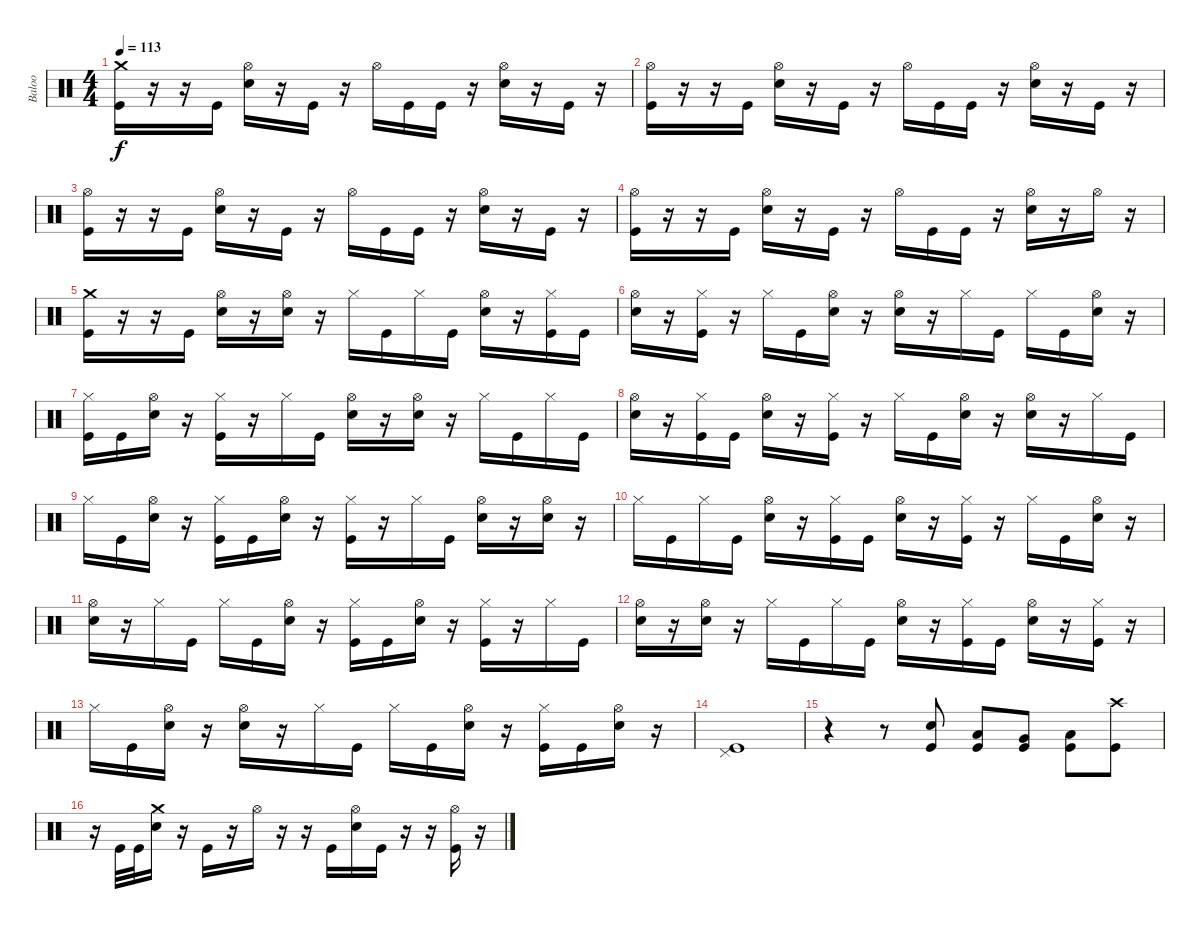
\track ("Baloo" "Baloo") {instrument percussion}
\staff {score}
\articulation defaults
\ts (4 4)
\tempo 113
\clef neutral
\ks c
("Crash medium (hit)" "Kick (hit)").16{dy f} r.16 r.16 "Kick (hit)".16 ("Hi-Hat (open)" "Electric Snare (hit)").16 r.16 "Kick (hit)".16 r.16 "Hi-Hat (open)".16 "Kick (hit)".16 "Kick (hit)".16 r.16 ("Hi-Hat (open)" "Electric Snare (hit)").16 r.16 "Kick (hit)".16 r.16 |
("Hi-Hat (open)" "Kick (hit)").16 r.16 r.16 "Kick (hit)".16 ("Hi-Hat (open)" "Electric Snare (hit)").16 r.16 "Kick (hit)".16 r.16 "Hi-Hat (open)".16 "Kick (hit)".16 "Kick (hit)".16 r.16 ("Hi-Hat (open)" "Electric Snare (hit)").16 r.16 "Kick (hit)".16 r.16 |
("Hi-Hat (open)" "Kick (hit)").16 r.16 r.16 "Kick (hit)".16 ("Hi-Hat (open)" "Electric Snare (hit)").16 r.16 "Kick (hit)".16 r.16 "Hi-Hat (open)".16 "Kick (hit)".16 "Kick (hit)".16 r.16 ("Hi-Hat (open)" "Electric Snare (hit)").16 r.16 "Kick (hit)".16 r.16 |
("Hi-Hat (open)" "Kick (hit)").16 r.16 r.16 "Kick (hit)".16 ("Hi-Hat (open)" "Electric Snare (hit)").16 r.16 "Kick (hit)".16 r.16 "Hi-Hat (open)".16 "Kick (hit)".16 "Kick (hit)".16 r.16 ("Hi-Hat (open)" "Electric Snare (hit)").16 r.16 "Hi-Hat (open)".16 r.16 |
("Crash medium (hit)" "Kick (hit)").16 r.16 r.16 "Kick (hit)".16 ("Hi-Hat (open)" "Electric Snare (hit)").16 r.16 ("Hi-Hat (open)" "Electric Snare (hit)").16 r.16 "Hi-Hat (closed)".16 "Kick (hit)".16 "Hi-Hat (closed)".16 "Kick (hit)".16 ("Hi-Hat (open)" "Electric Snare (hit)").16 r.16 ("Hi-Hat (closed)" "Kick (hit)").16 "Kick (hit)".16 |
("Hi-Hat (open)" "Electric Snare (hit)").16 r.16 ("Hi-Hat (closed)" "Kick (hit)").16 r.16 "Hi-Hat (closed)".16 "Kick (hit)".16 ("Hi-Hat (open)" "Electric Snare (hit)").16 r.16 ("Hi-Hat (open)" "Electric Snare (hit)").16 r.16 "Hi-Hat (closed)".16 "Kick (hit)".16 "Hi-Hat (closed)".16 "Kick (hit)".16 ("Hi-Hat (open)" "Electric Snare (hit)").16 r.16 |
("Hi-Hat (closed)" "Kick (hit)").16 "Kick (hit)".16 ("Hi-Hat (open)" "Electric Snare (hit)").16 r.16 ("Hi-Hat (closed)" "Kick (hit)").16 r.16 "Hi-Hat (closed)".16 "Kick (hit)".16 ("Hi-Hat (open)" "Electric Snare (hit)").16 r.16 ("Hi-Hat (open)" "Electric Snare (hit)").16 r.16 "Hi-Hat (closed)".16 "Kick (hit)".16 "Hi-Hat (closed)".16 "Kick (hit)".16 |
("Hi-Hat (open)" "Electric Snare (hit)").16 r.16 ("Hi-Hat (closed)" "Kick (hit)").16 "Kick (hit)".16 ("Hi-Hat (open)" "Electric Snare (hit)").16 r.16 ("Hi-Hat (closed)" "Kick (hit)").16 r.16 "Hi-Hat (closed)".16 "Kick (hit)".16 ("Hi-Hat (open)" "Electric Snare (hit)").16 r.16 ("Hi-Hat (open)" "Electric Snare (hit)").16 r.16 "Hi-Hat (closed)".16 "Kick (hit)".16 |
"Hi-Hat (closed)".16 "Kick (hit)".16 ("Hi-Hat (open)" "Electric Snare (hit)").16 r.16 ("Hi-Hat (closed)" "Kick (hit)").16 "Kick (hit)".16 ("Hi-Hat (open)" "Electric Snare (hit)").16 r.16 ("Hi-Hat (closed)" "Kick (hit)").16 r.16 "Hi-Hat (closed)".16 "Kick (hit)".16 ("Hi-Hat (open)" "Electric Snare (hit)").16 r.16 ("Hi-Hat (open)" "Electric Snare (hit)").16 r.16 |
"Hi-Hat (closed)".16 "Kick (hit)".16 "Hi-Hat (closed)".16 "Kick (hit)".16 ("Hi-Hat (open)" "Electric Snare (hit)").16 r.16 ("Hi-Hat (closed)" "Kick (hit)").16 "Kick (hit)".16 ("Hi-Hat (open)" "Electric Snare (hit)").16 r.16 ("Hi-Hat (closed)" "Kick (hit)").16 r.16 "Hi-Hat (closed)".16 "Kick (hit)".16 ("Hi-Hat (open)" "Electric Snare (hit)").16 r.16 |
("Hi-Hat (open)" "Electric Snare (hit)").16 r.16 "Hi-Hat (closed)".16 "Kick (hit)".16 "Hi-Hat (closed)".16 "Kick (hit)".16 ("Hi-Hat (open)" "Electric Snare (hit)").16 r.16 ("Hi-Hat (closed)" "Kick (hit)").16 "Kick (hit)".16 ("Hi-Hat (open)" "Electric Snare (hit)").16 r.16 ("Hi-Hat (closed)" "Kick (hit)").16 r.16 "Hi-Hat (closed)".16 "Kick (hit)".16 |
("Hi-Hat (open)" "Electric Snare (hit)").16 r.16 ("Hi-Hat (open)" "Electric Snare (hit)").16 r.16 "Hi-Hat (closed)".16 "Kick (hit)".16 "Hi-Hat (closed)".16 "Kick (hit)".16 ("Hi-Hat (open)" "Electric Snare (hit)").16 r.16 ("Hi-Hat (closed)" "Kick (hit)").16 "Kick (hit)".16 ("Hi-Hat (open)" "Electric Snare (hit)").16 r.16 ("Hi-Hat (closed)" "Kick (hit)").16 r.16 |
"Hi-Hat (closed)".16 "Kick (hit)".16 ("Hi-Hat (open)" "Electric Snare (hit)").16 r.16 ("Hi-Hat (open)" "Electric Snare (hit)").16 r.16 "Hi-Hat (closed)".16 "Kick (hit)".16 "Hi-Hat (closed)".16 "Kick (hit)".16 ("Hi-Hat (open)" "Electric Snare (hit)").16 r.16 ("Hi-Hat (closed)" "Kick (hit)").16 "Kick (hit)".16 ("Hi-Hat (open)" "Electric Snare (hit)").16 r.16 |
("Pedal Hi-Hat (hit)" "Kick (hit)").1 |
r.4 r.8 ("Electric Snare (hit)" "Kick (hit)").8 ("Low Tom (hit)" "Kick (hit)").8 ("Very Low Tom (hit)" "Kick (hit)").8 ("Low Floor Tom (hit)" "Kick (hit)").8 ("Crash high (hit)" "Kick (hit)").8 |
r.16 "Kick (hit)".32 "Kick (hit)".32 ("Crash medium (hit)" "Electric Snare (hit)").16 r.16 "Kick (hit)".16 r.16 "Hi-Hat (open)".16 r.16 r.16 "Kick (hit)".16 ("Hi-Hat (open)" "Electric Snare (hit)").16 "Kick (hit)".16 r.16 r.16 ("Hi-Hat (open)" "Kick (hit)").16 r.16
